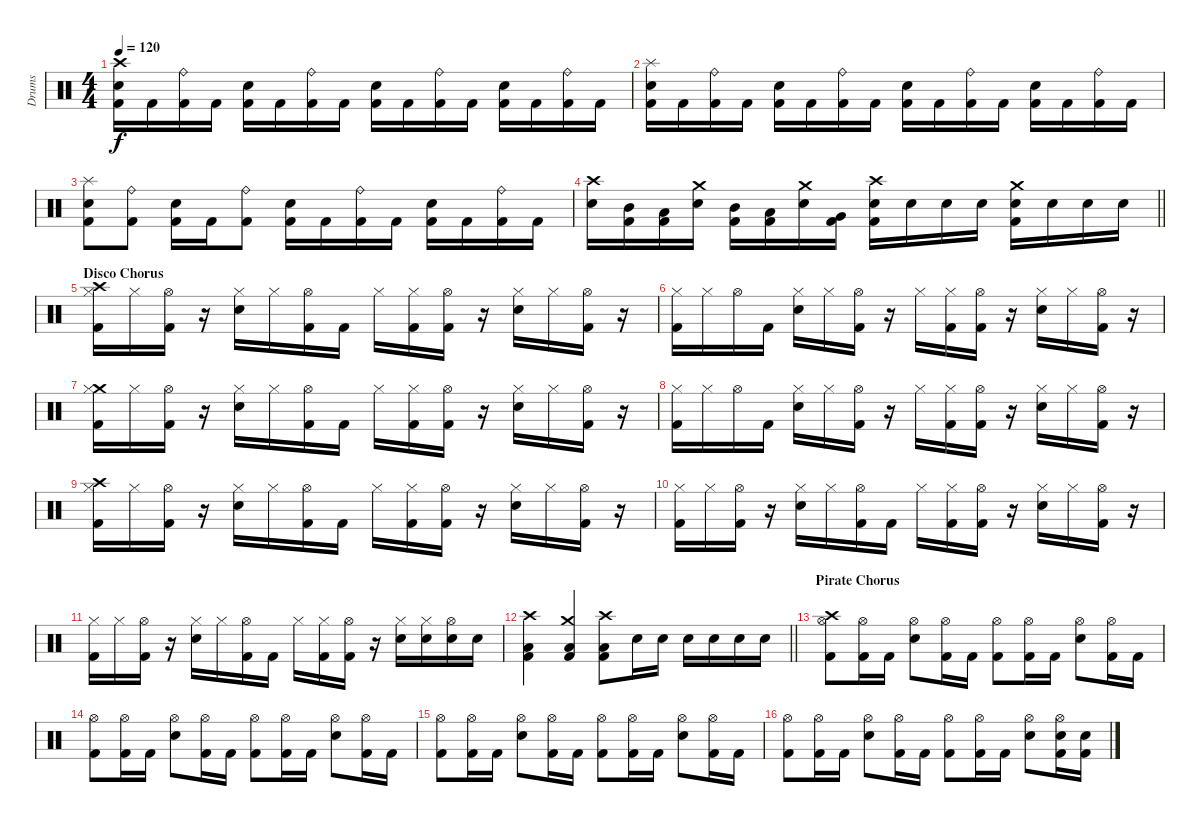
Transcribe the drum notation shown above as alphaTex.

\track ("Drums" "Drums") {instrument percussion}
\staff {score}
\articulation defaults
\ts (4 4)
\tempo 120
\clef neutral
\ks c
("Crash high (hit)" "Snare (hit) 2" "Kick (hit) 2").16{dy f} "Kick (hit) 2".16 ("Ride (bell)" "Kick (hit) 2").16 "Kick (hit) 2".16 ("Snare (hit) 2" "Kick (hit) 2").16 "Kick (hit) 2".16 ("Ride (bell)" "Kick (hit) 2").16 "Kick (hit) 2".16 ("Snare (hit) 2" "Kick (hit) 2").16 "Kick (hit) 2".16 ("Ride (bell)" "Kick (hit) 2").16 "Kick (hit) 2".16 ("Snare (hit) 2" "Kick (hit) 2").16 "Kick (hit) 2".16 ("Ride (bell)" "Kick (hit) 2").16 "Kick (hit) 2".16 |
("Splash (hit)" "Snare (hit) 2" "Kick (hit) 2").16 "Kick (hit) 2".16 ("Ride (bell)" "Kick (hit) 2").16 "Kick (hit) 2".16 ("Snare (hit) 2" "Kick (hit) 2").16 "Kick (hit) 2".16 ("Ride (bell)" "Kick (hit) 2").16 "Kick (hit) 2".16 ("Snare (hit) 2" "Kick (hit) 2").16 "Kick (hit) 2".16 ("Ride (bell)" "Kick (hit) 2").16 "Kick (hit) 2".16 ("Snare (hit) 2" "Kick (hit) 2").16 "Kick (hit) 2".16 ("Ride (bell)" "Kick (hit) 2").16 "Kick (hit) 2".16 |
("Splash (hit)" "Snare (hit) 2" "Kick (hit) 2").8 ("Ride (bell)" "Kick (hit) 2").8 ("Snare (hit) 2" "Kick (hit) 2").16 "Kick (hit) 2".16 ("Ride (bell)" "Kick (hit) 2").8 ("Snare (hit) 2" "Kick (hit) 2").16 "Kick (hit) 2".16 ("Ride (bell)" "Kick (hit) 2").16 "Kick (hit) 2".16 ("Snare (hit) 2" "Kick (hit) 2").16 "Kick (hit) 2".16 ("Ride (bell)" "Kick (hit) 2").16 "Kick (hit) 2".16 |
\barLineRight lightlight
("Crash high (hit)" "Snare (hit) 2").16 ("Mid Tom (hit)" "Kick (hit) 2").16 ("Low Tom (hit)" "Kick (hit) 2").16 ("Crash medium (hit)" "Snare (hit) 2").16 ("Mid Tom (hit)" "Kick (hit) 2").16 ("Low Tom (hit)" "Kick (hit) 2").16 ("Crash medium (hit)" "Snare (hit) 2").16 ("Very Low Tom (hit)" "Kick (hit) 2").16 ("Crash high (hit)" "Snare (hit) 2" "Kick (hit) 2").16 "Snare (hit) 2".16 "Snare (hit) 2".16 "Snare (hit) 2".16 ("Crash medium (hit)" "Snare (hit) 2" "Kick (hit) 2").16 "Snare (hit) 2".16 "Snare (hit) 2".16 "Snare (hit) 2".16 |
\section ("" "Disco Chorus")
("Crash high (hit)" "Hi-Hat (closed)" "Kick (hit) 2").16 "Hi-Hat (closed)".16 ("Hi-Hat (open)" "Kick (hit) 2").16 r.16 ("Hi-Hat (closed)" "Snare (hit) 2").16 "Hi-Hat (closed)".16 ("Hi-Hat (open)" "Kick (hit) 2").16 "Kick (hit) 2".16 "Hi-Hat (closed)".16 ("Hi-Hat (closed)" "Kick (hit) 2").16 ("Hi-Hat (open)" "Kick (hit) 2").16 r.16 ("Hi-Hat (closed)" "Snare (hit) 2").16 "Hi-Hat (closed)".16 ("Hi-Hat (open)" "Kick (hit) 2").16 r.16 |
("Hi-Hat (closed)" "Kick (hit) 2").16 "Hi-Hat (closed)".16 "Hi-Hat (open)".16 "Kick (hit) 2".16 ("Hi-Hat (closed)" "Snare (hit) 2").16 "Hi-Hat (closed)".16 ("Hi-Hat (open)" "Kick (hit) 2").16 r.16 "Hi-Hat (closed)".16 ("Hi-Hat (closed)" "Kick (hit) 2").16 ("Hi-Hat (open)" "Kick (hit) 2").16 r.16 ("Hi-Hat (closed)" "Snare (hit) 2").16 "Hi-Hat (closed)".16 ("Hi-Hat (open)" "Kick (hit) 2").16 r.16 |
("Crash medium (hit)" "Hi-Hat (closed)" "Kick (hit) 2").16 "Hi-Hat (closed)".16 ("Hi-Hat (open)" "Kick (hit) 2").16 r.16 ("Hi-Hat (closed)" "Snare (hit) 2").16 "Hi-Hat (closed)".16 ("Hi-Hat (open)" "Kick (hit) 2").16 "Kick (hit) 2".16 "Hi-Hat (closed)".16 ("Hi-Hat (closed)" "Kick (hit) 2").16 ("Hi-Hat (open)" "Kick (hit) 2").16 r.16 ("Hi-Hat (closed)" "Snare (hit) 2").16 "Hi-Hat (closed)".16 ("Hi-Hat (open)" "Kick (hit) 2").16 r.16 |
("Hi-Hat (closed)" "Kick (hit) 2").16 "Hi-Hat (closed)".16 "Hi-Hat (open)".16 "Kick (hit) 2".16 ("Hi-Hat (closed)" "Snare (hit) 2").16 "Hi-Hat (closed)".16 ("Hi-Hat (open)" "Kick (hit) 2").16 r.16 "Hi-Hat (closed)".16 ("Hi-Hat (closed)" "Kick (hit) 2").16 ("Hi-Hat (open)" "Kick (hit) 2").16 r.16 ("Hi-Hat (closed)" "Snare (hit) 2").16 "Hi-Hat (closed)".16 ("Hi-Hat (open)" "Kick (hit) 2").16 r.16 |
("Crash high (hit)" "Hi-Hat (closed)" "Kick (hit) 2").16 "Hi-Hat (closed)".16 ("Hi-Hat (open)" "Kick (hit) 2").16 r.16 ("Hi-Hat (closed)" "Snare (hit) 2").16 "Hi-Hat (closed)".16 ("Hi-Hat (open)" "Kick (hit) 2").16 "Kick (hit) 2".16 "Hi-Hat (closed)".16 ("Hi-Hat (closed)" "Kick (hit) 2").16 ("Hi-Hat (open)" "Kick (hit) 2").16 r.16 ("Hi-Hat (closed)" "Snare (hit) 2").16 "Hi-Hat (closed)".16 ("Hi-Hat (open)" "Kick (hit) 2").16 r.16 |
("Hi-Hat (closed)" "Kick (hit) 2").16 "Hi-Hat (closed)".16 ("Hi-Hat (open)" "Kick (hit) 2").16 r.16 ("Hi-Hat (closed)" "Snare (hit) 2").16 "Hi-Hat (closed)".16 ("Hi-Hat (open)" "Kick (hit) 2").16 "Kick (hit) 2".16 "Hi-Hat (closed)".16 ("Hi-Hat (closed)" "Kick (hit) 2").16 ("Hi-Hat (open)" "Kick (hit) 2").16 r.16 ("Hi-Hat (closed)" "Snare (hit) 2").16 "Hi-Hat (closed)".16 ("Hi-Hat (open)" "Kick (hit) 2").16 r.16 |
("Hi-Hat (closed)" "Kick (hit) 2").16 "Hi-Hat (closed)".16 ("Hi-Hat (open)" "Kick (hit) 2").16 r.16 ("Hi-Hat (closed)" "Snare (hit) 2").16 "Hi-Hat (closed)".16 ("Hi-Hat (open)" "Kick (hit) 2").16 "Kick (hit) 2".16 "Hi-Hat (closed)".16 ("Hi-Hat (closed)" "Kick (hit) 2").16 ("Hi-Hat (open)" "Kick (hit) 2").16 r.16 ("Hi-Hat (closed)" "Snare (hit) 2").16 ("Hi-Hat (closed)" "Snare (hit) 2").16 ("Hi-Hat (open)" "Snare (hit) 2").16 "Snare (hit) 2".16 |
\barLineRight lightlight
("Crash high (hit)" "Low Floor Tom (hit)" "Kick (hit) 2").4 ("Crash medium (hit)" "Low Floor Tom (hit)" "Kick (hit) 2").4 ("Crash high (hit)" "Low Floor Tom (hit)" "Kick (hit) 2").8 "Snare (hit) 2".16 "Snare (hit) 2".16 "Snare (hit) 2".16 "Snare (hit) 2".16 "Snare (hit) 2".16 "Snare (hit) 2".16 |
\section ("" "Pirate Chorus")
("Crash high (hit)" "Hi-Hat (open)" "Kick (hit) 2").8 ("Hi-Hat (open)" "Kick (hit) 2").16 "Kick (hit) 2".16 ("Hi-Hat (open)" "Snare (hit) 2").8 ("Hi-Hat (open)" "Kick (hit) 2").16 "Kick (hit) 2".16 ("Hi-Hat (open)" "Kick (hit) 2").8 ("Hi-Hat (open)" "Kick (hit) 2").16 "Kick (hit) 2".16 ("Hi-Hat (open)" "Snare (hit) 2").8 ("Hi-Hat (open)" "Kick (hit) 2").16 "Kick (hit) 2".16 |
("Hi-Hat (open)" "Kick (hit) 2").8 ("Hi-Hat (open)" "Kick (hit) 2").16 "Kick (hit) 2".16 ("Hi-Hat (open)" "Snare (hit) 2").8 ("Hi-Hat (open)" "Kick (hit) 2").16 "Kick (hit) 2".16 ("Hi-Hat (open)" "Kick (hit) 2").8 ("Hi-Hat (open)" "Kick (hit) 2").16 "Kick (hit) 2".16 ("Hi-Hat (open)" "Snare (hit) 2").8 ("Hi-Hat (open)" "Kick (hit) 2").16 "Kick (hit) 2".16 |
("Hi-Hat (open)" "Kick (hit) 2").8 ("Hi-Hat (open)" "Kick (hit) 2").16 "Kick (hit) 2".16 ("Hi-Hat (open)" "Snare (hit) 2").8 ("Hi-Hat (open)" "Kick (hit) 2").16 "Kick (hit) 2".16 ("Hi-Hat (open)" "Kick (hit) 2").8 ("Hi-Hat (open)" "Kick (hit) 2").16 "Kick (hit) 2".16 ("Hi-Hat (open)" "Snare (hit) 2").8 ("Hi-Hat (open)" "Kick (hit) 2").16 "Kick (hit) 2".16 |
("Hi-Hat (open)" "Kick (hit) 2").8 ("Hi-Hat (open)" "Kick (hit) 2").16 "Kick (hit) 2".16 ("Hi-Hat (open)" "Snare (hit) 2").8 ("Hi-Hat (open)" "Kick (hit) 2").16 "Kick (hit) 2".16 ("Hi-Hat (open)" "Kick (hit) 2").8 ("Hi-Hat (open)" "Kick (hit) 2").16 "Kick (hit) 2".16 ("Hi-Hat (open)" "Snare (hit) 2").8 ("Hi-Hat (open)" "Snare (hit) 2" "Kick (hit) 2").16 ("Snare (hit) 2" "Kick (hit) 2").16
